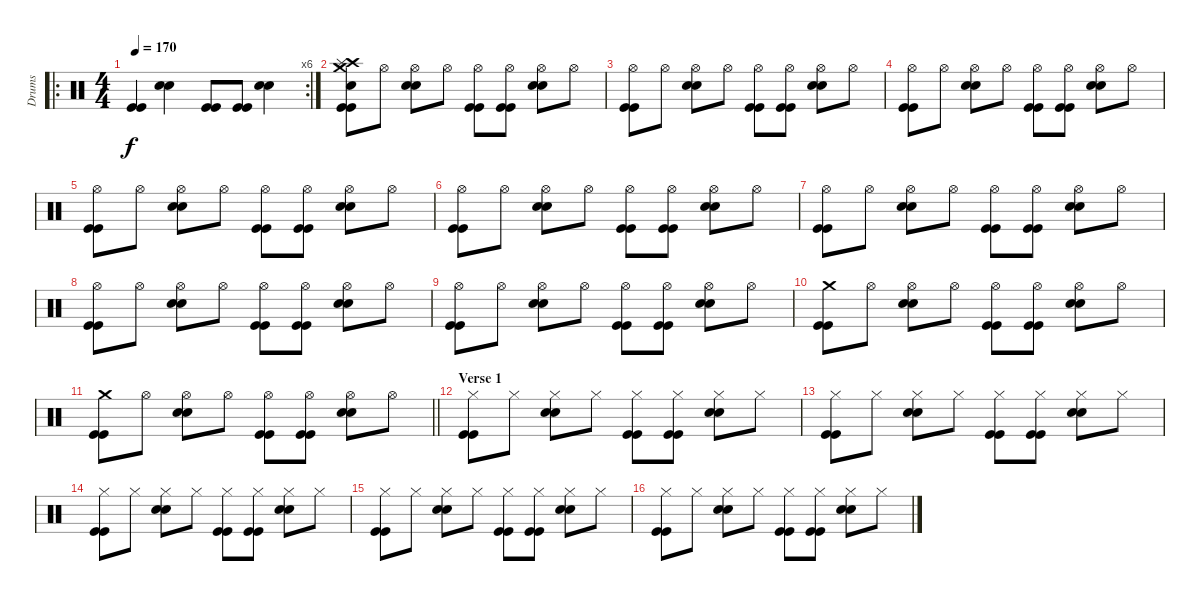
\track ("Drums" "Drums") {instrument percussion}
\staff {score}
\articulation defaults
\ro
\rc 6
\ts (4 4)
\tempo 170
\clef neutral
\ks c
("Kick (hit)" "Kick (hit)").4{dy f} ("Electric Snare (hit)" "Electric Snare (hit)").4 ("Kick (hit)" "Kick (hit)").8 ("Kick (hit)" "Kick (hit)").8 ("Electric Snare (hit)" "Electric Snare (hit)").4 |
("Electric Snare (hit)" "Crash high (hit)" "Splash (hit)" "Crash medium (hit)" "Kick (hit)" "Kick (hit)").8 "Hi-Hat (open)".8 ("Hi-Hat (open)" "Snare (hit) 2" "Snare (hit) 2").8 "Hi-Hat (open)".8 ("Hi-Hat (open)" "Kick (hit)" "Kick (hit)").8 ("Hi-Hat (open)" "Kick (hit)" "Kick (hit)").8 ("Hi-Hat (open)" "Snare (hit) 2" "Snare (hit) 2").8 "Hi-Hat (open)".8 |
("Hi-Hat (open)" "Kick (hit)" "Kick (hit)").8 "Hi-Hat (open)".8 ("Hi-Hat (open)" "Snare (hit) 2" "Snare (hit) 2").8 "Hi-Hat (open)".8 ("Hi-Hat (open)" "Kick (hit)" "Kick (hit)").8 ("Hi-Hat (open)" "Kick (hit)" "Kick (hit)").8 ("Hi-Hat (open)" "Snare (hit) 2" "Snare (hit) 2").8 "Hi-Hat (open)".8 |
("Hi-Hat (open)" "Kick (hit)" "Kick (hit)").8 "Hi-Hat (open)".8 ("Hi-Hat (open)" "Snare (hit) 2" "Snare (hit) 2").8 "Hi-Hat (open)".8 ("Hi-Hat (open)" "Kick (hit)" "Kick (hit)").8 ("Hi-Hat (open)" "Kick (hit)" "Kick (hit)").8 ("Hi-Hat (open)" "Snare (hit) 2" "Snare (hit) 2").8 "Hi-Hat (open)".8 |
("Hi-Hat (open)" "Kick (hit)" "Kick (hit)").8 "Hi-Hat (open)".8 ("Hi-Hat (open)" "Snare (hit) 2" "Snare (hit) 2").8 "Hi-Hat (open)".8 ("Hi-Hat (open)" "Kick (hit)" "Kick (hit)").8 ("Hi-Hat (open)" "Kick (hit)" "Kick (hit)").8 ("Hi-Hat (open)" "Snare (hit) 2" "Snare (hit) 2").8 "Hi-Hat (open)".8 |
("Hi-Hat (open)" "Kick (hit)" "Kick (hit)").8 "Hi-Hat (open)".8 ("Hi-Hat (open)" "Snare (hit) 2" "Snare (hit) 2").8 "Hi-Hat (open)".8 ("Hi-Hat (open)" "Kick (hit)" "Kick (hit)").8 ("Hi-Hat (open)" "Kick (hit)" "Kick (hit)").8 ("Hi-Hat (open)" "Snare (hit) 2" "Snare (hit) 2").8 "Hi-Hat (open)".8 |
("Hi-Hat (open)" "Kick (hit)" "Kick (hit)").8 "Hi-Hat (open)".8 ("Hi-Hat (open)" "Snare (hit) 2" "Snare (hit) 2").8 "Hi-Hat (open)".8 ("Hi-Hat (open)" "Kick (hit)" "Kick (hit)").8 ("Hi-Hat (open)" "Kick (hit)" "Kick (hit)").8 ("Hi-Hat (open)" "Snare (hit) 2" "Snare (hit) 2").8 "Hi-Hat (open)".8 |
("Hi-Hat (open)" "Kick (hit)" "Kick (hit)").8 "Hi-Hat (open)".8 ("Hi-Hat (open)" "Snare (hit) 2" "Snare (hit) 2").8 "Hi-Hat (open)".8 ("Hi-Hat (open)" "Kick (hit)" "Kick (hit)").8 ("Hi-Hat (open)" "Kick (hit)" "Kick (hit)").8 ("Hi-Hat (open)" "Snare (hit) 2" "Snare (hit) 2").8 "Hi-Hat (open)".8 |
("Hi-Hat (open)" "Kick (hit)" "Kick (hit)").8 "Hi-Hat (open)".8 ("Hi-Hat (open)" "Snare (hit) 2" "Snare (hit) 2").8 "Hi-Hat (open)".8 ("Hi-Hat (open)" "Kick (hit)" "Kick (hit)").8 ("Hi-Hat (open)" "Kick (hit)" "Kick (hit)").8 ("Hi-Hat (open)" "Snare (hit) 2" "Snare (hit) 2").8 "Hi-Hat (open)".8 |
("Crash medium (hit)" "Kick (hit)" "Kick (hit)").8 "Hi-Hat (open)".8 ("Hi-Hat (open)" "Snare (hit) 2" "Snare (hit) 2").8 "Hi-Hat (open)".8 ("Hi-Hat (open)" "Kick (hit)" "Kick (hit)").8 ("Hi-Hat (open)" "Kick (hit)" "Kick (hit)").8 ("Hi-Hat (open)" "Snare (hit) 2" "Snare (hit) 2").8 "Hi-Hat (open)".8 |
\barLineRight lightlight
("Crash medium (hit)" "Kick (hit)" "Kick (hit)").8 "Hi-Hat (open)".8 ("Hi-Hat (open)" "Snare (hit) 2" "Snare (hit) 2").8 "Hi-Hat (open)".8 ("Hi-Hat (open)" "Kick (hit)" "Kick (hit)").8 ("Hi-Hat (open)" "Kick (hit)" "Kick (hit)").8 ("Hi-Hat (open)" "Snare (hit) 2" "Snare (hit) 2").8 "Hi-Hat (open)".8 |
\section ("" "Verse 1")
("Hi-Hat (closed)" "Kick (hit)" "Kick (hit)").8 "Hi-Hat (closed)".8 ("Hi-Hat (closed)" "Snare (hit) 2" "Snare (hit) 2").8 "Hi-Hat (closed)".8 ("Hi-Hat (closed)" "Kick (hit)" "Kick (hit)").8 ("Hi-Hat (closed)" "Kick (hit)" "Kick (hit)").8 ("Hi-Hat (closed)" "Snare (hit) 2" "Snare (hit) 2").8 "Hi-Hat (closed)".8 |
("Hi-Hat (closed)" "Kick (hit)" "Kick (hit)").8 "Hi-Hat (closed)".8 ("Hi-Hat (closed)" "Snare (hit) 2" "Snare (hit) 2").8 "Hi-Hat (closed)".8 ("Hi-Hat (closed)" "Kick (hit)" "Kick (hit)").8 ("Hi-Hat (closed)" "Kick (hit)" "Kick (hit)").8 ("Hi-Hat (closed)" "Snare (hit) 2" "Snare (hit) 2").8 "Hi-Hat (closed)".8 |
("Hi-Hat (closed)" "Kick (hit)" "Kick (hit)").8 "Hi-Hat (closed)".8 ("Hi-Hat (closed)" "Snare (hit) 2" "Snare (hit) 2").8 "Hi-Hat (closed)".8 ("Hi-Hat (closed)" "Kick (hit)" "Kick (hit)").8 ("Hi-Hat (closed)" "Kick (hit)" "Kick (hit)").8 ("Hi-Hat (closed)" "Snare (hit) 2" "Snare (hit) 2").8 "Hi-Hat (closed)".8 |
("Hi-Hat (closed)" "Kick (hit)" "Kick (hit)").8 "Hi-Hat (closed)".8 ("Hi-Hat (closed)" "Snare (hit) 2" "Snare (hit) 2").8 "Hi-Hat (closed)".8 ("Hi-Hat (closed)" "Kick (hit)" "Kick (hit)").8 ("Hi-Hat (closed)" "Kick (hit)" "Kick (hit)").8 ("Hi-Hat (closed)" "Snare (hit) 2" "Snare (hit) 2").8 "Hi-Hat (closed)".8 |
("Hi-Hat (closed)" "Kick (hit)" "Kick (hit)").8 "Hi-Hat (closed)".8 ("Hi-Hat (closed)" "Snare (hit) 2" "Snare (hit) 2").8 "Hi-Hat (closed)".8 ("Hi-Hat (closed)" "Kick (hit)" "Kick (hit)").8 ("Hi-Hat (closed)" "Kick (hit)" "Kick (hit)").8 ("Hi-Hat (closed)" "Snare (hit) 2" "Snare (hit) 2").8 "Hi-Hat (closed)".8
